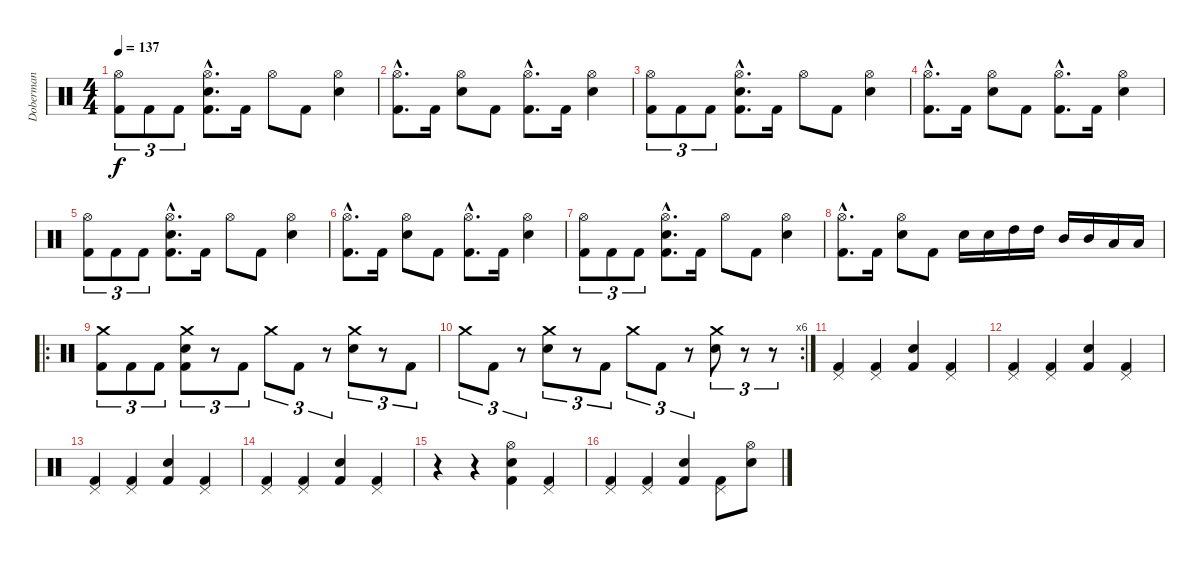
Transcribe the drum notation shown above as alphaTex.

\track ("Doberman" "Doberman") {instrument percussion}
\staff {score}
\articulation defaults
\ts (4 4)
\tempo 137
\clef neutral
\ks c
("Hi-Hat (open)" "Kick (hit) 2").8{tu (3 2) dy f} "Kick (hit) 2".8{tu (3 2)} "Kick (hit) 2".8{tu (3 2)} ("Snare (hit) 2"{hac} "Hi-Hat (open)"{hac} "Kick (hit) 2"{hac}).8{d} "Kick (hit) 2".16 "Hi-Hat (open)".8 "Kick (hit) 2".8 ("Snare (hit) 2" "Hi-Hat (open)").4 |
("Hi-Hat (open)"{hac} "Kick (hit) 2"{hac}).8{d} "Kick (hit) 2".16 ("Snare (hit) 2" "Hi-Hat (open)").8 "Kick (hit) 2".8 ("Hi-Hat (open)"{hac} "Kick (hit) 2"{hac}).8{d} "Kick (hit) 2".16 ("Snare (hit) 2" "Hi-Hat (open)").4 |
("Hi-Hat (open)" "Kick (hit) 2").8{tu (3 2)} "Kick (hit) 2".8{tu (3 2)} "Kick (hit) 2".8{tu (3 2)} ("Snare (hit) 2"{hac} "Hi-Hat (open)"{hac} "Kick (hit) 2"{hac}).8{d} "Kick (hit) 2".16 "Hi-Hat (open)".8 "Kick (hit) 2".8 ("Snare (hit) 2" "Hi-Hat (open)").4 |
("Hi-Hat (open)"{hac} "Kick (hit) 2"{hac}).8{d} "Kick (hit) 2".16 ("Snare (hit) 2" "Hi-Hat (open)").8 "Kick (hit) 2".8 ("Hi-Hat (open)"{hac} "Kick (hit) 2"{hac}).8{d} "Kick (hit) 2".16 ("Snare (hit) 2" "Hi-Hat (open)").4 |
("Hi-Hat (open)" "Kick (hit) 2").8{tu (3 2)} "Kick (hit) 2".8{tu (3 2)} "Kick (hit) 2".8{tu (3 2)} ("Snare (hit) 2"{hac} "Hi-Hat (open)"{hac} "Kick (hit) 2"{hac}).8{d} "Kick (hit) 2".16 "Hi-Hat (open)".8 "Kick (hit) 2".8 ("Snare (hit) 2" "Hi-Hat (open)").4 |
("Hi-Hat (open)"{hac} "Kick (hit) 2"{hac}).8{d} "Kick (hit) 2".16 ("Snare (hit) 2" "Hi-Hat (open)").8 "Kick (hit) 2".8 ("Hi-Hat (open)"{hac} "Kick (hit) 2"{hac}).8{d} "Kick (hit) 2".16 ("Snare (hit) 2" "Hi-Hat (open)").4 |
("Hi-Hat (open)" "Kick (hit) 2").8{tu (3 2)} "Kick (hit) 2".8{tu (3 2)} "Kick (hit) 2".8{tu (3 2)} ("Snare (hit) 2"{hac} "Hi-Hat (open)"{hac} "Kick (hit) 2"{hac}).8{d} "Kick (hit) 2".16 "Hi-Hat (open)".8 "Kick (hit) 2".8 ("Snare (hit) 2" "Hi-Hat (open)").4 |
("Hi-Hat (open)"{hac} "Kick (hit) 2"{hac}).8{d} "Kick (hit) 2".16 ("Snare (hit) 2" "Hi-Hat (open)").8 "Kick (hit) 2".8 "Snare (hit) 2".16 "Snare (hit) 2".16 "High Tom (hit)".16 "High Tom (hit)".16 "Mid Tom (hit)".16 "Mid Tom (hit)".16 "Low Tom (hit)".16 "Low Tom (hit)".16 |
\ro
("Crash medium (hit)" "Kick (hit) 2").8{tu (3 2)} "Kick (hit) 2".8{tu (3 2)} "Kick (hit) 2".8{tu (3 2)} ("Crash medium (hit)" "Snare (hit) 2" "Kick (hit) 2").8{tu (3 2)} r.8{tu (3 2)} "Kick (hit) 2".8{tu (3 2)} "Crash medium (hit)".8{tu (3 2)} "Kick (hit) 2".8{tu (3 2)} r.8{tu (3 2)} ("Crash medium (hit)" "Snare (hit) 2").8{tu (3 2)} r.8{tu (3 2)} "Kick (hit) 2".8{tu (3 2)} |
\rc 6 "Crash medium (hit)".8{tu (3 2)} "Kick (hit) 2".8{tu (3 2)}
r.8{tu (3 2)} ("Crash medium (hit)" "Snare (hit) 2").8{tu (3 2)} r.8{tu (3 2)} "Kick (hit) 2".8{tu (3 2)} "Crash medium (hit)".8{tu (3 2)} "Kick (hit) 2".8{tu (3 2)} r.8{tu (3 2)} ("Crash medium (hit)" "Snare (hit) 2").8{tu (3 2)} r.8{tu (3 2)} r.8{tu (3 2)} |
("Pedal Hi-Hat (hit)" "Kick (hit) 2").4 ("Pedal Hi-Hat (hit)" "Kick (hit) 2").4 ("Snare (hit) 2" "Kick (hit) 2").4 ("Pedal Hi-Hat (hit)" "Kick (hit) 2").4 |
("Pedal Hi-Hat (hit)" "Kick (hit) 2").4 ("Pedal Hi-Hat (hit)" "Kick (hit) 2").4 ("Snare (hit) 2" "Kick (hit) 2").4 ("Pedal Hi-Hat (hit)" "Kick (hit) 2").4 |
("Pedal Hi-Hat (hit)" "Kick (hit) 2").4 ("Pedal Hi-Hat (hit)" "Kick (hit) 2").4 ("Snare (hit) 2" "Kick (hit) 2").4 ("Pedal Hi-Hat (hit)" "Kick (hit) 2").4 |
("Pedal Hi-Hat (hit)" "Kick (hit) 2").4 ("Pedal Hi-Hat (hit)" "Kick (hit) 2").4 ("Snare (hit) 2" "Kick (hit) 2").4 ("Pedal Hi-Hat (hit)" "Kick (hit) 2").4 |
r.4 r.4 ("Snare (hit) 2" "Hi-Hat (open)" "Kick (hit) 2").4 ("Pedal Hi-Hat (hit)" "Kick (hit) 2").4 |
("Pedal Hi-Hat (hit)" "Kick (hit) 2").4 ("Pedal Hi-Hat (hit)" "Kick (hit) 2").4 ("Snare (hit) 2" "Kick (hit) 2").4 ("Pedal Hi-Hat (hit)" "Kick (hit) 2").8 ("Hi-Hat (open)" "Snare (hit) 2").8
